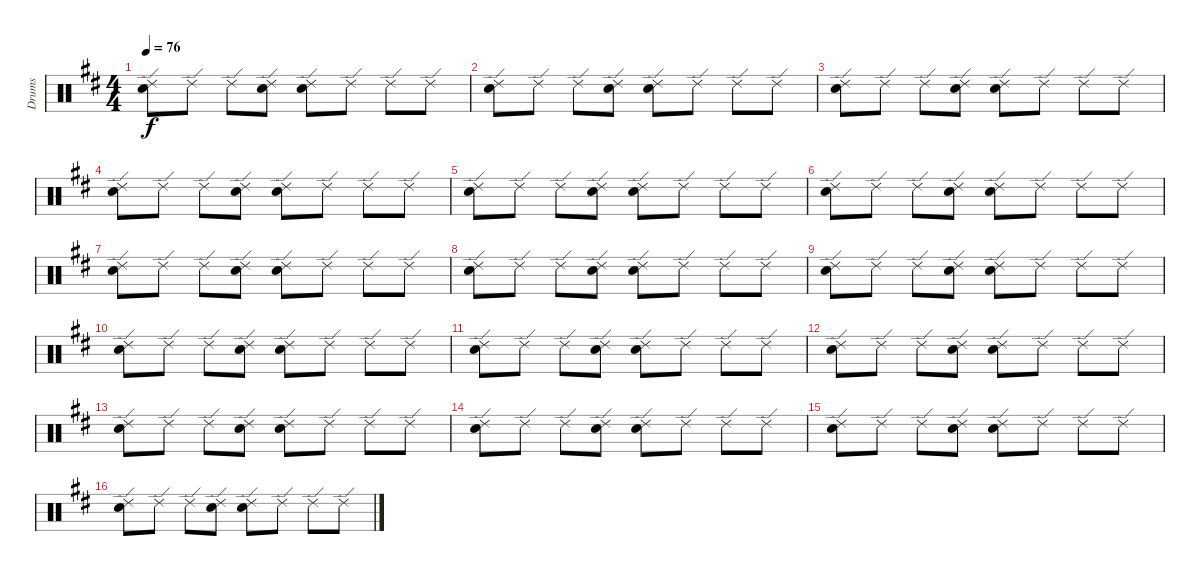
\track ("Drums" "Drums") {instrument percussion}
\staff {score}
\articulation defaults
\ts (4 4)
\tempo 76
\clef neutral
\ks d
("Ride (edge) 2" "Snare (hit) 2").8{dy f} "Ride (edge) 2".8 "Ride (edge) 2".8 ("Ride (edge) 2" "Snare (hit) 2").8 ("Ride (edge) 2" "Snare (hit) 2").8 "Ride (edge) 2".8 "Ride (edge) 2".8 "Ride (edge) 2".8 |
("Ride (edge) 2" "Snare (hit) 2").8 "Ride (edge) 2".8 "Ride (edge) 2".8 ("Ride (edge) 2" "Snare (hit) 2").8 ("Ride (edge) 2" "Snare (hit) 2").8 "Ride (edge) 2".8 "Ride (edge) 2".8 "Ride (edge) 2".8 |
("Ride (edge) 2" "Snare (hit) 2").8 "Ride (edge) 2".8 "Ride (edge) 2".8 ("Ride (edge) 2" "Snare (hit) 2").8 ("Ride (edge) 2" "Snare (hit) 2").8 "Ride (edge) 2".8 "Ride (edge) 2".8 "Ride (edge) 2".8 |
("Ride (edge) 2" "Snare (hit) 2").8 "Ride (edge) 2".8 "Ride (edge) 2".8 ("Ride (edge) 2" "Snare (hit) 2").8 ("Ride (edge) 2" "Snare (hit) 2").8 "Ride (edge) 2".8 "Ride (edge) 2".8 "Ride (edge) 2".8 |
("Ride (edge) 2" "Snare (hit) 2").8 "Ride (edge) 2".8 "Ride (edge) 2".8 ("Ride (edge) 2" "Snare (hit) 2").8 ("Ride (edge) 2" "Snare (hit) 2").8 "Ride (edge) 2".8 "Ride (edge) 2".8 "Ride (edge) 2".8 |
("Ride (edge) 2" "Snare (hit) 2").8 "Ride (edge) 2".8 "Ride (edge) 2".8 ("Ride (edge) 2" "Snare (hit) 2").8 ("Ride (edge) 2" "Snare (hit) 2").8 "Ride (edge) 2".8 "Ride (edge) 2".8 "Ride (edge) 2".8 |
("Ride (edge) 2" "Snare (hit) 2").8 "Ride (edge) 2".8 "Ride (edge) 2".8 ("Ride (edge) 2" "Snare (hit) 2").8 ("Ride (edge) 2" "Snare (hit) 2").8 "Ride (edge) 2".8 "Ride (edge) 2".8 "Ride (edge) 2".8 |
("Ride (edge) 2" "Snare (hit) 2").8 "Ride (edge) 2".8 "Ride (edge) 2".8 ("Ride (edge) 2" "Snare (hit) 2").8 ("Ride (edge) 2" "Snare (hit) 2").8 "Ride (edge) 2".8 "Ride (edge) 2".8 "Ride (edge) 2".8 |
("Ride (edge) 2" "Snare (hit) 2").8 "Ride (edge) 2".8 "Ride (edge) 2".8 ("Ride (edge) 2" "Snare (hit) 2").8 ("Ride (edge) 2" "Snare (hit) 2").8 "Ride (edge) 2".8 "Ride (edge) 2".8 "Ride (edge) 2".8 |
("Ride (edge) 2" "Snare (hit) 2").8 "Ride (edge) 2".8 "Ride (edge) 2".8 ("Ride (edge) 2" "Snare (hit) 2").8 ("Ride (edge) 2" "Snare (hit) 2").8 "Ride (edge) 2".8 "Ride (edge) 2".8 "Ride (edge) 2".8 |
("Ride (edge) 2" "Snare (hit) 2").8 "Ride (edge) 2".8 "Ride (edge) 2".8 ("Ride (edge) 2" "Snare (hit) 2").8 ("Ride (edge) 2" "Snare (hit) 2").8 "Ride (edge) 2".8 "Ride (edge) 2".8 "Ride (edge) 2".8 |
("Ride (edge) 2" "Snare (hit) 2").8 "Ride (edge) 2".8 "Ride (edge) 2".8 ("Ride (edge) 2" "Snare (hit) 2").8 ("Ride (edge) 2" "Snare (hit) 2").8 "Ride (edge) 2".8 "Ride (edge) 2".8 "Ride (edge) 2".8 |
("Ride (edge) 2" "Snare (hit) 2").8 "Ride (edge) 2".8 "Ride (edge) 2".8 ("Ride (edge) 2" "Snare (hit) 2").8 ("Ride (edge) 2" "Snare (hit) 2").8 "Ride (edge) 2".8 "Ride (edge) 2".8 "Ride (edge) 2".8 |
("Ride (edge) 2" "Snare (hit) 2").8 "Ride (edge) 2".8 "Ride (edge) 2".8 ("Ride (edge) 2" "Snare (hit) 2").8 ("Ride (edge) 2" "Snare (hit) 2").8 "Ride (edge) 2".8 "Ride (edge) 2".8 "Ride (edge) 2".8 |
("Ride (edge) 2" "Snare (hit) 2").8 "Ride (edge) 2".8 "Ride (edge) 2".8 ("Ride (edge) 2" "Snare (hit) 2").8 ("Ride (edge) 2" "Snare (hit) 2").8 "Ride (edge) 2".8 "Ride (edge) 2".8 "Ride (edge) 2".8 |
("Ride (edge) 2" "Snare (hit) 2").8 "Ride (edge) 2".8 "Ride (edge) 2".8 ("Ride (edge) 2" "Snare (hit) 2").8 ("Ride (edge) 2" "Snare (hit) 2").8 "Ride (edge) 2".8 "Ride (edge) 2".8 "Ride (edge) 2".8
